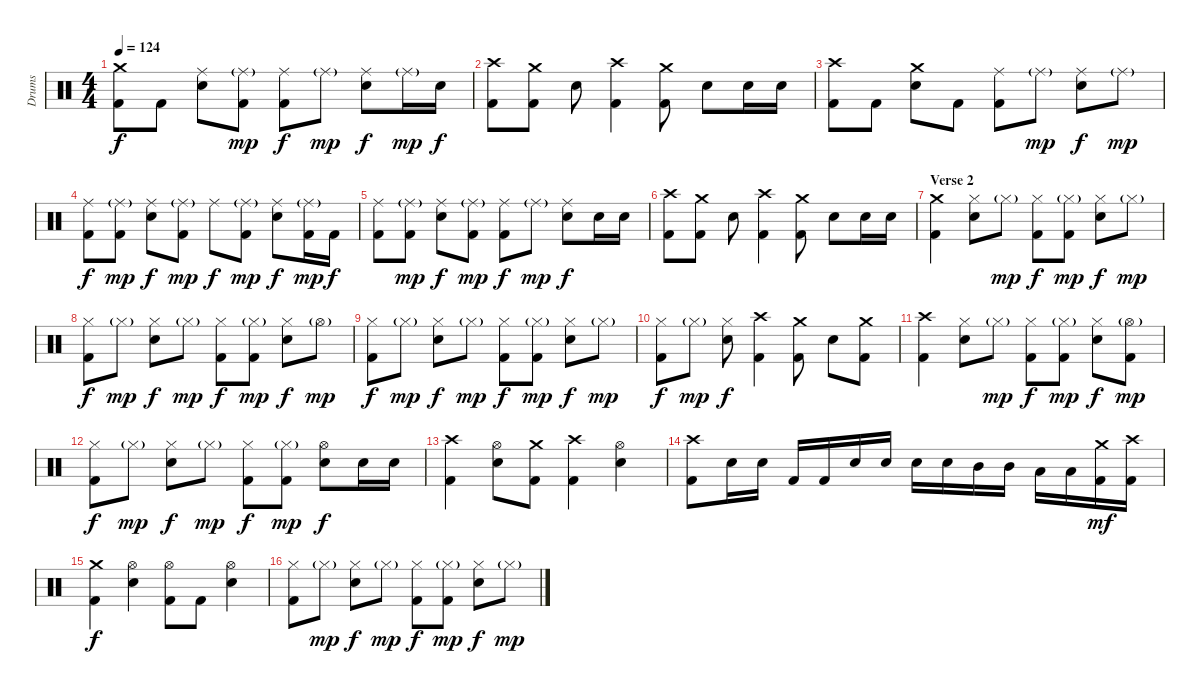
\track ("Drums" "Drums") {instrument percussion}
\staff {score}
\articulation defaults
\ts (4 4)
\tempo 124
\clef neutral
\ks c
("Crash medium (hit)" "Kick (hit) 2").8{dy f} "Kick (hit) 2".8 ("Ride (middle)" "Snare (hit) 2").8 ("Ride (middle)"{g} "Kick (hit) 2").8{dy mp} ("Ride (middle)" "Kick (hit) 2").8{dy f} "Ride (middle)"{g}.8{dy mp} ("Ride (middle)" "Snare (hit) 2").8{dy f} "Ride (middle)"{g}.16{dy mp} "Snare (hit) 2".16{dy f} |
("Crash high (hit)" "Kick (hit) 2").8 ("Crash medium (hit)" "Kick (hit) 2").8 "Snare (hit) 2".8 ("Crash high (hit)" "Kick (hit) 2").4 ("Crash medium (hit)" "Kick (hit) 2").8 "Snare (hit) 2".8 "Snare (hit) 2".16 "Snare (hit) 2".16 |
("Crash high (hit)" "Kick (hit) 2").8 "Kick (hit) 2".8 ("Crash medium (hit)" "Snare (hit) 2").8 "Kick (hit) 2".8 ("Ride (middle)" "Kick (hit) 2").8 "Ride (middle)"{g}.8{dy mp} ("Ride (middle)" "Snare (hit) 2").8{dy f} "Ride (middle)"{g}.8{dy mp} |
("Ride (middle)" "Kick (hit) 2").8{dy f} ("Ride (middle)"{g} "Kick (hit) 2").8{dy mp} ("Ride (middle)" "Snare (hit) 2").8{dy f} ("Ride (middle)"{g} "Kick (hit) 2").8{dy mp} "Ride (middle)".8{dy f} ("Ride (middle)"{g} "Kick (hit) 2").8{dy mp} ("Ride (middle)" "Snare (hit) 2").8{dy f} ("Ride (middle)"{g} "Kick (hit) 2").16{dy mp} "Kick (hit) 2".16{dy f} |
("Ride (middle)" "Kick (hit) 2").8 ("Ride (middle)"{g} "Kick (hit) 2").8{dy mp} ("Ride (middle)" "Snare (hit) 2").8{dy f} ("Ride (middle)"{g} "Kick (hit) 2").8{dy mp} ("Ride (middle)" "Kick (hit) 2").8{dy f} "Ride (middle)"{g}.8{dy mp} ("Ride (middle)" "Snare (hit) 2").8{dy f} "Snare (hit) 2".16 "Snare (hit) 2".16 |
("Crash high (hit)" "Kick (hit) 2").8 ("Crash medium (hit)" "Kick (hit) 2").8 "Snare (hit) 2".8 ("Crash high (hit)" "Kick (hit) 2").4 ("Crash medium (hit)" "Kick (hit) 2").8 "Snare (hit) 2".8 "Snare (hit) 2".16 "Snare (hit) 2".16 |
\section ("" "Verse 2")
("Crash medium (hit)" "Kick (hit) 2").4 ("Hi-Hat (closed)" "Snare (hit) 2").8 "Hi-Hat (closed)"{g}.8{dy mp} ("Hi-Hat (closed)" "Kick (hit) 2").8{dy f} ("Hi-Hat (closed)"{g} "Kick (hit) 2").8{dy mp} ("Hi-Hat (closed)" "Snare (hit) 2").8{dy f} "Hi-Hat (closed)"{g}.8{dy mp} |
("Hi-Hat (closed)" "Kick (hit) 2").8{dy f} "Hi-Hat (closed)"{g}.8{dy mp} ("Hi-Hat (closed)" "Snare (hit) 2").8{dy f} "Hi-Hat (closed)"{g}.8{dy mp} ("Hi-Hat (closed)" "Kick (hit) 2").8{dy f} ("Hi-Hat (closed)"{g} "Kick (hit) 2").8{dy mp} ("Hi-Hat (closed)" "Snare (hit) 2").8{dy f} "Hi-Hat (open)"{g}.8{dy mp} |
("Hi-Hat (closed)" "Kick (hit) 2").8{dy f} "Hi-Hat (closed)"{g}.8{dy mp} ("Hi-Hat (closed)" "Snare (hit) 2").8{dy f} "Hi-Hat (closed)"{g}.8{dy mp} ("Hi-Hat (closed)" "Kick (hit) 2").8{dy f} ("Hi-Hat (closed)"{g} "Kick (hit) 2").8{dy mp} ("Hi-Hat (closed)" "Snare (hit) 2").8{dy f} "Hi-Hat (closed)"{g}.8{dy mp} |
("Hi-Hat (closed)" "Kick (hit) 2").8{dy f} "Hi-Hat (closed)"{g}.8{dy mp} ("Hi-Hat (closed)" "Snare (hit) 2").8{dy f} ("Crash high (hit)" "Kick (hit) 2").4 ("Crash medium (hit)" "Kick (hit) 2").8 "Snare (hit) 2".8 ("Crash medium (hit)" "Kick (hit) 2").8 |
("Crash high (hit)" "Kick (hit) 2").4 ("Hi-Hat (closed)" "Snare (hit) 2").8 "Hi-Hat (closed)"{g}.8{dy mp} ("Hi-Hat (closed)" "Kick (hit) 2").8{dy f} ("Hi-Hat (closed)"{g} "Kick (hit) 2").8{dy mp} ("Hi-Hat (closed)" "Snare (hit) 2").8{dy f} ("Hi-Hat (open)"{g} "Kick (hit) 2").8{dy mp} |
("Hi-Hat (closed)" "Kick (hit) 2").8{dy f} "Hi-Hat (closed)"{g}.8{dy mp} ("Hi-Hat (closed)" "Snare (hit) 2").8{dy f} "Hi-Hat (closed)"{g}.8{dy mp} ("Hi-Hat (closed)" "Kick (hit) 2").8{dy f} ("Hi-Hat (closed)"{g} "Kick (hit) 2").8{dy mp} ("Hi-Hat (open)" "Snare (hit) 2").8{dy f} "Snare (hit) 2".16 "Snare (hit) 2".16 |
("Crash high (hit)" "Kick (hit) 2").4 ("Hi-Hat (open)" "Snare (hit) 2").8 ("Crash medium (hit)" "Kick (hit) 2").8 ("Crash high (hit)" "Kick (hit) 2").4 ("Hi-Hat (open)" "Snare (hit) 2").4 |
("Crash high (hit)" "Kick (hit) 2").8 "Snare (hit) 2".16 "Snare (hit) 2".16 "Kick (hit) 2".16 "Kick (hit) 2".16 "Snare (hit) 2".16 "Snare (hit) 2".16 "Snare (hit) 2".16 "Snare (hit) 2".16 "Mid Tom (hit)".16 "Mid Tom (hit)".16 "Low Tom (hit)".16 "Low Tom (hit)".16 ("Crash medium (hit)" "Kick (hit) 2").16{dy mf} ("Crash high (hit)" "Kick (hit) 2").16 |
("Crash medium (hit)" "Kick (hit) 2").4{dy f} ("Hi-Hat (open)" "Snare (hit) 2").4 ("Hi-Hat (open)" "Kick (hit) 2").8 "Kick (hit) 2".8 ("Hi-Hat (open)" "Snare (hit) 2").4 |
("Hi-Hat (closed)" "Kick (hit) 2").8 "Hi-Hat (closed)"{g}.8{dy mp} ("Hi-Hat (closed)" "Snare (hit) 2").8{dy f} "Hi-Hat (closed)"{g}.8{dy mp} ("Hi-Hat (closed)" "Kick (hit) 2").8{dy f} ("Hi-Hat (closed)"{g} "Kick (hit) 2").8{dy mp} ("Hi-Hat (closed)" "Snare (hit) 2").8{dy f} "Hi-Hat (closed)"{g}.8{dy mp}
